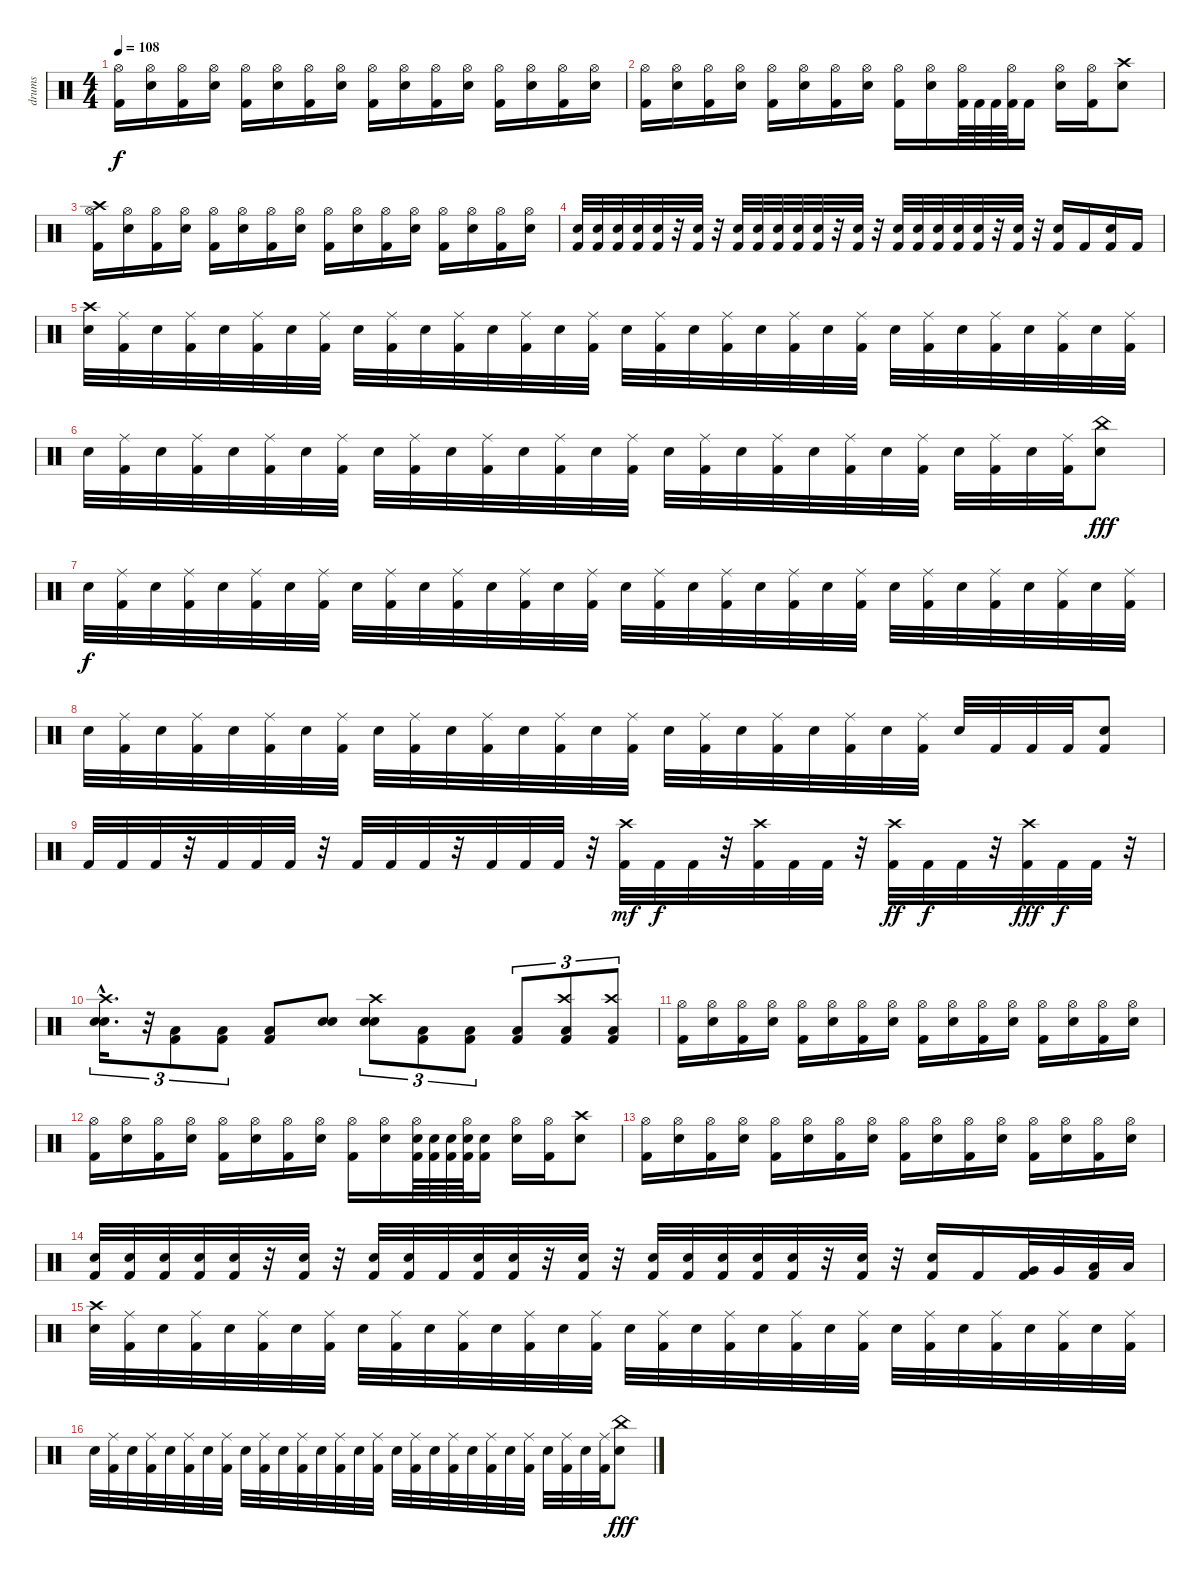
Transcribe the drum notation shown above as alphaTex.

\track ("drums" "drums") {instrument percussion}
\staff {score}
\articulation defaults
\ts (4 4)
\tempo 108
\clef neutral
\ks c
("Hi-Hat (open)" "Kick (hit) 2").16{dy f} ("Electric Snare (hit)" "Hi-Hat (open)").16 ("Hi-Hat (open)" "Kick (hit) 2").16 ("Electric Snare (hit)" "Hi-Hat (open)").16 ("Hi-Hat (open)" "Kick (hit) 2").16 ("Electric Snare (hit)" "Hi-Hat (open)").16 ("Hi-Hat (open)" "Kick (hit) 2").16 ("Electric Snare (hit)" "Hi-Hat (open)").16 ("Hi-Hat (open)" "Kick (hit) 2").16 ("Electric Snare (hit)" "Hi-Hat (open)").16 ("Hi-Hat (open)" "Kick (hit) 2").16 ("Electric Snare (hit)" "Hi-Hat (open)").16 ("Hi-Hat (open)" "Kick (hit) 2").16 ("Electric Snare (hit)" "Hi-Hat (open)").16 ("Hi-Hat (open)" "Kick (hit) 2").16 ("Electric Snare (hit)" "Hi-Hat (open)").16 |
("Hi-Hat (open)" "Kick (hit) 2").16 ("Electric Snare (hit)" "Hi-Hat (open)").16 ("Hi-Hat (open)" "Kick (hit) 2").16 ("Electric Snare (hit)" "Hi-Hat (open)").16 ("Hi-Hat (open)" "Kick (hit) 2").16 ("Electric Snare (hit)" "Hi-Hat (open)").16 ("Hi-Hat (open)" "Kick (hit) 2").16 ("Electric Snare (hit)" "Hi-Hat (open)").16 ("Hi-Hat (open)" "Kick (hit) 2").16 ("Electric Snare (hit)" "Hi-Hat (open)").16 ("Hi-Hat (open)" "Kick (hit) 2").64 "Kick (hit) 2".64 "Kick (hit) 2".64 ("Hi-Hat (open)" "Kick (hit) 2").64 "Kick (hit) 2".16 ("Electric Snare (hit)" "Hi-Hat (open)").16 ("Hi-Hat (open)" "Kick (hit) 2").16 ("Electric Snare (hit)" "Crash high (hit)").8 |
("Crash high (hit)" "Hi-Hat (open)" "Kick (hit) 2").16 ("Electric Snare (hit)" "Hi-Hat (open)").16 ("Hi-Hat (open)" "Kick (hit) 2").16 ("Electric Snare (hit)" "Hi-Hat (open)").16 ("Hi-Hat (open)" "Kick (hit) 2").16 ("Electric Snare (hit)" "Hi-Hat (open)").16 ("Hi-Hat (open)" "Kick (hit) 2").16 ("Electric Snare (hit)" "Hi-Hat (open)").16 ("Hi-Hat (open)" "Kick (hit) 2").16 ("Electric Snare (hit)" "Hi-Hat (open)").16 ("Hi-Hat (open)" "Kick (hit) 2").16 ("Electric Snare (hit)" "Hi-Hat (open)").16 ("Hi-Hat (open)" "Kick (hit) 2").16 ("Electric Snare (hit)" "Hi-Hat (open)").16 ("Hi-Hat (open)" "Kick (hit) 2").16 ("Electric Snare (hit)" "Hi-Hat (open)").16 |
("Electric Snare (hit)" "Kick (hit) 2").32 ("Electric Snare (hit)" "Kick (hit) 2").32 ("Electric Snare (hit)" "Kick (hit) 2").32 ("Electric Snare (hit)" "Kick (hit) 2").32 ("Electric Snare (hit)" "Kick (hit) 2").32 r.32 ("Electric Snare (hit)" "Kick (hit) 2").32 r.32 ("Electric Snare (hit)" "Kick (hit) 2").32 ("Electric Snare (hit)" "Kick (hit) 2").32 ("Electric Snare (hit)" "Kick (hit) 2").32 ("Electric Snare (hit)" "Kick (hit) 2").32 ("Electric Snare (hit)" "Kick (hit) 2").32 r.32 ("Electric Snare (hit)" "Kick (hit) 2").32 r.32 ("Electric Snare (hit)" "Kick (hit) 2").32 ("Electric Snare (hit)" "Kick (hit) 2").32 ("Electric Snare (hit)" "Kick (hit) 2").32 ("Electric Snare (hit)" "Kick (hit) 2").32 ("Electric Snare (hit)" "Kick (hit) 2").32 r.32 ("Electric Snare (hit)" "Kick (hit) 2").32 r.32 ("Electric Snare (hit)" "Kick (hit) 2").16 "Kick (hit) 2".16 ("Electric Snare (hit)" "Kick (hit) 2").16 "Kick (hit) 2".16 |
("Electric Snare (hit)" "Crash high (hit)").32 ("Ride (middle)" "Kick (hit) 2").32 "Electric Snare (hit)".32 ("Ride (middle)" "Kick (hit) 2").32 "Electric Snare (hit)".32 ("Ride (middle)" "Kick (hit) 2").32 "Electric Snare (hit)".32 ("Ride (middle)" "Kick (hit) 2").32 "Electric Snare (hit)".32 ("Ride (middle)" "Kick (hit) 2").32 "Electric Snare (hit)".32 ("Ride (middle)" "Kick (hit) 2").32 "Electric Snare (hit)".32 ("Ride (middle)" "Kick (hit) 2").32 "Electric Snare (hit)".32 ("Ride (middle)" "Kick (hit) 2").32 "Electric Snare (hit)".32 ("Ride (middle)" "Kick (hit) 2").32 "Electric Snare (hit)".32 ("Ride (middle)" "Kick (hit) 2").32 "Electric Snare (hit)".32 ("Ride (middle)" "Kick (hit) 2").32 "Electric Snare (hit)".32 ("Ride (middle)" "Kick (hit) 2").32 "Electric Snare (hit)".32 ("Ride (middle)" "Kick (hit) 2").32 "Electric Snare (hit)".32 ("Ride (middle)" "Kick (hit) 2").32 "Electric Snare (hit)".32 ("Ride (middle)" "Kick (hit) 2").32 "Electric Snare (hit)".32 ("Ride (middle)" "Kick (hit) 2").32 |
"Electric Snare (hit)".32 ("Ride (middle)" "Kick (hit) 2").32 "Electric Snare (hit)".32 ("Ride (middle)" "Kick (hit) 2").32 "Electric Snare (hit)".32 ("Ride (middle)" "Kick (hit) 2").32 "Electric Snare (hit)".32 ("Ride (middle)" "Kick (hit) 2").32 "Electric Snare (hit)".32 ("Ride (middle)" "Kick (hit) 2").32 "Electric Snare (hit)".32 ("Ride (middle)" "Kick (hit) 2").32 "Electric Snare (hit)".32 ("Ride (middle)" "Kick (hit) 2").32 "Electric Snare (hit)".32 ("Ride (middle)" "Kick (hit) 2").32 "Electric Snare (hit)".32 ("Ride (middle)" "Kick (hit) 2").32 "Electric Snare (hit)".32 ("Ride (middle)" "Kick (hit) 2").32 "Electric Snare (hit)".32 ("Ride (middle)" "Kick (hit) 2").32 "Electric Snare (hit)".32 ("Ride (middle)" "Kick (hit) 2").32 "Electric Snare (hit)".32 ("Ride (middle)" "Kick (hit) 2").32 "Electric Snare (hit)".32 ("Ride (middle)" "Kick (hit) 2").32 ("Electric Snare (hit)" "China (hit)").8{dy fff} |
"Electric Snare (hit)".32{dy f} ("Ride (middle)" "Kick (hit) 2").32 "Electric Snare (hit)".32 ("Ride (middle)" "Kick (hit) 2").32 "Electric Snare (hit)".32 ("Ride (middle)" "Kick (hit) 2").32 "Electric Snare (hit)".32 ("Ride (middle)" "Kick (hit) 2").32 "Electric Snare (hit)".32 ("Ride (middle)" "Kick (hit) 2").32 "Electric Snare (hit)".32 ("Ride (middle)" "Kick (hit) 2").32 "Electric Snare (hit)".32 ("Ride (middle)" "Kick (hit) 2").32 "Electric Snare (hit)".32 ("Ride (middle)" "Kick (hit) 2").32 "Electric Snare (hit)".32 ("Ride (middle)" "Kick (hit) 2").32 "Electric Snare (hit)".32 ("Ride (middle)" "Kick (hit) 2").32 "Electric Snare (hit)".32 ("Ride (middle)" "Kick (hit) 2").32 "Electric Snare (hit)".32 ("Ride (middle)" "Kick (hit) 2").32 "Electric Snare (hit)".32 ("Ride (middle)" "Kick (hit) 2").32 "Electric Snare (hit)".32 ("Ride (middle)" "Kick (hit) 2").32 "Electric Snare (hit)".32 ("Ride (middle)" "Kick (hit) 2").32 "Electric Snare (hit)".32 ("Ride (middle)" "Kick (hit) 2").32 |
"Electric Snare (hit)".32 ("Ride (middle)" "Kick (hit) 2").32 "Electric Snare (hit)".32 ("Ride (middle)" "Kick (hit) 2").32 "Electric Snare (hit)".32 ("Ride (middle)" "Kick (hit) 2").32 "Electric Snare (hit)".32 ("Ride (middle)" "Kick (hit) 2").32 "Electric Snare (hit)".32 ("Ride (middle)" "Kick (hit) 2").32 "Electric Snare (hit)".32 ("Ride (middle)" "Kick (hit) 2").32 "Electric Snare (hit)".32 ("Ride (middle)" "Kick (hit) 2").32 "Electric Snare (hit)".32 ("Ride (middle)" "Kick (hit) 2").32 "Electric Snare (hit)".32 ("Ride (middle)" "Kick (hit) 2").32 "Electric Snare (hit)".32 ("Ride (middle)" "Kick (hit) 2").32 "Electric Snare (hit)".32 ("Ride (middle)" "Kick (hit) 2").32 "Electric Snare (hit)".32 ("Ride (middle)" "Kick (hit) 2").32 "Electric Snare (hit)".32 "Kick (hit) 2".32 "Kick (hit) 2".32 "Kick (hit) 2".32 ("Electric Snare (hit)" "Kick (hit) 2").8 |
"Kick (hit) 2".32 "Kick (hit) 2".32 "Kick (hit) 2".32 r.32 "Kick (hit) 2".32 "Kick (hit) 2".32 "Kick (hit) 2".32 r.32 "Kick (hit) 2".32 "Kick (hit) 2".32 "Kick (hit) 2".32 r.32 "Kick (hit) 2".32 "Kick (hit) 2".32 "Kick (hit) 2".32 r.32 ("Crash high (hit)" "Kick (hit) 2").32{dy mf} "Kick (hit) 2".32{dy f} "Kick (hit) 2".32 r.32 ("Crash high (hit)" "Kick (hit) 2").32 "Kick (hit) 2".32 "Kick (hit) 2".32 r.32 ("Crash high (hit)" "Kick (hit) 2").32{dy ff} "Kick (hit) 2".32{dy f} "Kick (hit) 2".32 r.32 ("Crash high (hit)" "Kick (hit) 2").32{dy fff} "Kick (hit) 2".32{dy f} "Kick (hit) 2".32 r.32 |
("Electric Snare (hit)"{hac} "Electric Snare (hit)"{hac} "Crash high (hit)"{hac}).16{d tu (3 2)} r.32{tu (3 2)} ("Low Floor Tom (hit)" "Kick (hit) 2").8{tu (3 2)} ("Low Floor Tom (hit)" "Kick (hit) 2").8{tu (3 2)} ("Low Floor Tom (hit)" "Kick (hit) 2").8 ("Electric Snare (hit)" "Electric Snare (hit)").8 ("Electric Snare (hit)" "Electric Snare (hit)" "Crash high (hit)").8{tu (3 2)} ("Low Floor Tom (hit)" "Kick (hit) 2").8{tu (3 2)} ("Low Floor Tom (hit)" "Kick (hit) 2").8{tu (3 2)} ("Low Floor Tom (hit)" "Kick (hit) 2").8{tu (3 2)} ("Crash high (hit)" "Low Floor Tom (hit)" "Kick (hit) 2").8{tu (3 2)} ("Crash high (hit)" "Low Floor Tom (hit)" "Kick (hit) 2").8{tu (3 2)} |
("Hi-Hat (open)" "Kick (hit) 2").16 ("Electric Snare (hit)" "Hi-Hat (open)").16 ("Hi-Hat (open)" "Kick (hit) 2").16 ("Electric Snare (hit)" "Hi-Hat (open)").16 ("Hi-Hat (open)" "Kick (hit) 2").16 ("Electric Snare (hit)" "Hi-Hat (open)").16 ("Hi-Hat (open)" "Kick (hit) 2").16 ("Electric Snare (hit)" "Hi-Hat (open)").16 ("Hi-Hat (open)" "Kick (hit) 2").16 ("Electric Snare (hit)" "Hi-Hat (open)").16 ("Hi-Hat (open)" "Kick (hit) 2").16 ("Electric Snare (hit)" "Hi-Hat (open)").16 ("Hi-Hat (open)" "Kick (hit) 2").16 ("Electric Snare (hit)" "Hi-Hat (open)").16 ("Hi-Hat (open)" "Kick (hit) 2").16 ("Electric Snare (hit)" "Hi-Hat (open)").16 |
("Hi-Hat (open)" "Kick (hit) 2").16 ("Electric Snare (hit)" "Hi-Hat (open)").16 ("Hi-Hat (open)" "Kick (hit) 2").16 ("Electric Snare (hit)" "Hi-Hat (open)").16 ("Hi-Hat (open)" "Kick (hit) 2").16 ("Electric Snare (hit)" "Hi-Hat (open)").16 ("Hi-Hat (open)" "Kick (hit) 2").16 ("Electric Snare (hit)" "Hi-Hat (open)").16 ("Hi-Hat (open)" "Kick (hit) 2").16 ("Electric Snare (hit)" "Hi-Hat (open)").16 ("Electric Snare (hit)" "Hi-Hat (open)" "Kick (hit) 2").64 ("Electric Snare (hit)" "Kick (hit) 2").64 ("Electric Snare (hit)" "Kick (hit) 2").64 ("Electric Snare (hit)" "Hi-Hat (open)" "Kick (hit) 2").64 ("Electric Snare (hit)" "Kick (hit) 2").16 ("Electric Snare (hit)" "Hi-Hat (open)").16 ("Hi-Hat (open)" "Kick (hit) 2").16 ("Electric Snare (hit)" "Crash high (hit)").8 |
("Hi-Hat (open)" "Kick (hit) 2").16 ("Electric Snare (hit)" "Hi-Hat (open)").16 ("Hi-Hat (open)" "Kick (hit) 2").16 ("Electric Snare (hit)" "Hi-Hat (open)").16 ("Hi-Hat (open)" "Kick (hit) 2").16 ("Electric Snare (hit)" "Hi-Hat (open)").16 ("Hi-Hat (open)" "Kick (hit) 2").16 ("Electric Snare (hit)" "Hi-Hat (open)").16 ("Hi-Hat (open)" "Kick (hit) 2").16 ("Electric Snare (hit)" "Hi-Hat (open)").16 ("Hi-Hat (open)" "Kick (hit) 2").16 ("Electric Snare (hit)" "Hi-Hat (open)").16 ("Hi-Hat (open)" "Kick (hit) 2").16 ("Electric Snare (hit)" "Hi-Hat (open)").16 ("Hi-Hat (open)" "Kick (hit) 2").16 ("Electric Snare (hit)" "Hi-Hat (open)").16 |
("Electric Snare (hit)" "Kick (hit) 2").32 ("Electric Snare (hit)" "Kick (hit) 2").32 ("Electric Snare (hit)" "Kick (hit) 2").32 ("Electric Snare (hit)" "Kick (hit) 2").32 ("Electric Snare (hit)" "Kick (hit) 2").32 r.32 ("Electric Snare (hit)" "Kick (hit) 2").32 r.32 ("Electric Snare (hit)" "Kick (hit) 2").32 ("Electric Snare (hit)" "Kick (hit) 2").32 "Kick (hit) 2".32 ("Electric Snare (hit)" "Kick (hit) 2").32 ("Electric Snare (hit)" "Kick (hit) 2").32 r.32 ("Electric Snare (hit)" "Kick (hit) 2").32 r.32 ("Electric Snare (hit)" "Kick (hit) 2").32 ("Electric Snare (hit)" "Kick (hit) 2").32 ("Electric Snare (hit)" "Kick (hit) 2").32 ("Electric Snare (hit)" "Kick (hit) 2").32 ("Electric Snare (hit)" "Kick (hit) 2").32 r.32 ("Electric Snare (hit)" "Kick (hit) 2").32 r.32 ("Electric Snare (hit)" "Kick (hit) 2").16 "Kick (hit) 2".16 ("Very Low Tom (hit)" "Kick (hit) 2").32 "Very Low Tom (hit)".32 ("Low Floor Tom (hit)" "Kick (hit) 2").32 "Low Floor Tom (hit)".32 |
("Electric Snare (hit)" "Crash high (hit)").32 ("Ride (middle)" "Kick (hit) 2").32 "Electric Snare (hit)".32 ("Ride (middle)" "Kick (hit) 2").32 "Electric Snare (hit)".32 ("Ride (middle)" "Kick (hit) 2").32 "Electric Snare (hit)".32 ("Ride (middle)" "Kick (hit) 2").32 "Electric Snare (hit)".32 ("Ride (middle)" "Kick (hit) 2").32 "Electric Snare (hit)".32 ("Ride (middle)" "Kick (hit) 2").32 "Electric Snare (hit)".32 ("Ride (middle)" "Kick (hit) 2").32 "Electric Snare (hit)".32 ("Ride (middle)" "Kick (hit) 2").32 "Electric Snare (hit)".32 ("Ride (middle)" "Kick (hit) 2").32 "Electric Snare (hit)".32 ("Ride (middle)" "Kick (hit) 2").32 "Electric Snare (hit)".32 ("Ride (middle)" "Kick (hit) 2").32 "Electric Snare (hit)".32 ("Ride (middle)" "Kick (hit) 2").32 "Electric Snare (hit)".32 ("Ride (middle)" "Kick (hit) 2").32 "Electric Snare (hit)".32 ("Ride (middle)" "Kick (hit) 2").32 "Electric Snare (hit)".32 ("Ride (middle)" "Kick (hit) 2").32 "Electric Snare (hit)".32 ("Ride (middle)" "Kick (hit) 2").32 |
"Electric Snare (hit)".32 ("Ride (middle)" "Kick (hit) 2").32 "Electric Snare (hit)".32 ("Ride (middle)" "Kick (hit) 2").32 "Electric Snare (hit)".32 ("Ride (middle)" "Kick (hit) 2").32 "Electric Snare (hit)".32 ("Ride (middle)" "Kick (hit) 2").32 "Electric Snare (hit)".32 ("Ride (middle)" "Kick (hit) 2").32 "Electric Snare (hit)".32 ("Ride (middle)" "Kick (hit) 2").32 "Electric Snare (hit)".32 ("Ride (middle)" "Kick (hit) 2").32 "Electric Snare (hit)".32 ("Ride (middle)" "Kick (hit) 2").32 "Electric Snare (hit)".32 ("Ride (middle)" "Kick (hit) 2").32 "Electric Snare (hit)".32 ("Ride (middle)" "Kick (hit) 2").32 "Electric Snare (hit)".32 ("Ride (middle)" "Kick (hit) 2").32 "Electric Snare (hit)".32 ("Ride (middle)" "Kick (hit) 2").32 "Electric Snare (hit)".32 ("Ride (middle)" "Kick (hit) 2").32 "Electric Snare (hit)".32 ("Ride (middle)" "Kick (hit) 2").32 ("Electric Snare (hit)" "China (hit)").8{dy fff}
